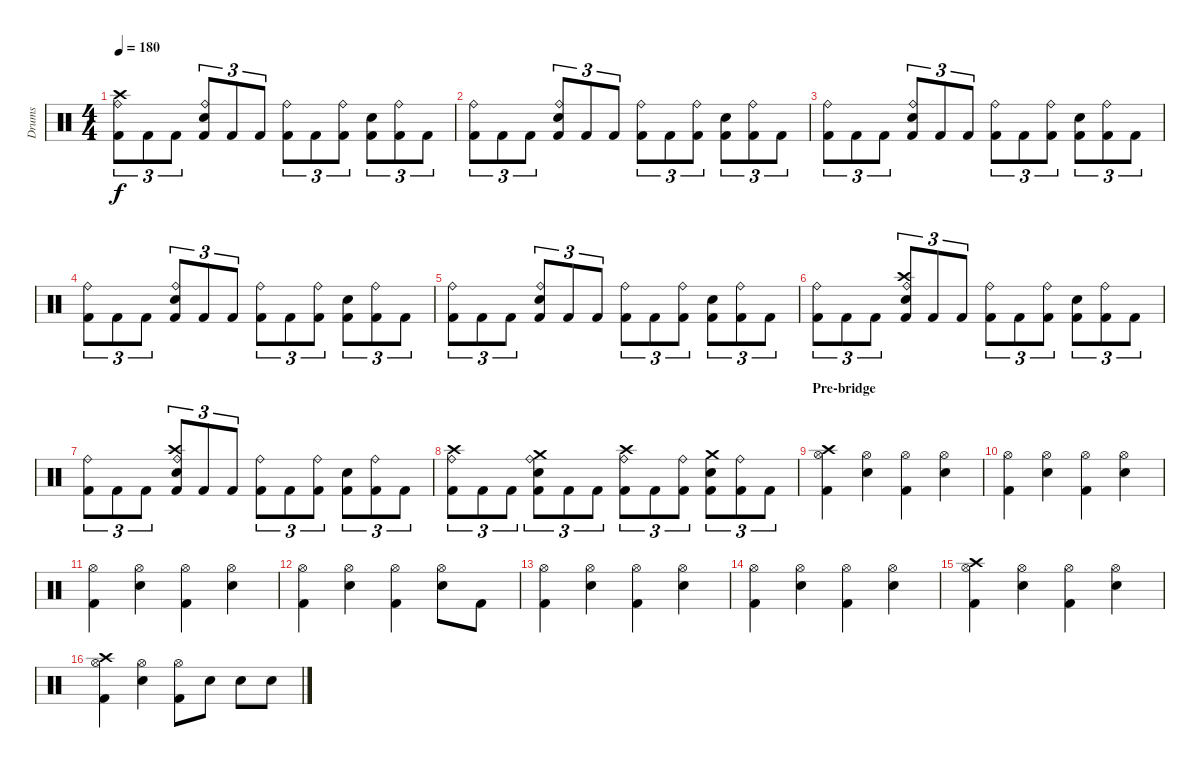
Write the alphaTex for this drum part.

\track ("Drums" "Drums") {instrument percussion}
\staff {score}
\articulation defaults
\ts (4 4)
\tempo 180
\clef neutral
\ks c
("Kick (hit) 2" "Crash high (hit)" "Ride (bell)").8{tu (3 2) dy f} "Kick (hit) 2".8{tu (3 2)} "Kick (hit) 2".8{tu (3 2)} ("Kick (hit) 2" "Electric Snare (hit)" "Ride (bell)").8{tu (3 2)} "Kick (hit) 2".8{tu (3 2)} "Kick (hit) 2".8{tu (3 2)} ("Kick (hit) 2" "Ride (bell)").8{tu (3 2)} "Kick (hit) 2".8{tu (3 2)} ("Kick (hit) 2" "Ride (bell)").8{tu (3 2)} ("Kick (hit) 2" "Electric Snare (hit)").8{tu (3 2)} ("Kick (hit) 2" "Ride (bell)").8{tu (3 2)} "Kick (hit) 2".8{tu (3 2)} |
("Kick (hit) 2" "Ride (bell)").8{tu (3 2)} "Kick (hit) 2".8{tu (3 2)} "Kick (hit) 2".8{tu (3 2)} ("Kick (hit) 2" "Electric Snare (hit)" "Ride (bell)").8{tu (3 2)} "Kick (hit) 2".8{tu (3 2)} "Kick (hit) 2".8{tu (3 2)} ("Kick (hit) 2" "Ride (bell)").8{tu (3 2)} "Kick (hit) 2".8{tu (3 2)} ("Kick (hit) 2" "Ride (bell)").8{tu (3 2)} ("Kick (hit) 2" "Electric Snare (hit)").8{tu (3 2)} ("Kick (hit) 2" "Ride (bell)").8{tu (3 2)} "Kick (hit) 2".8{tu (3 2)} |
("Kick (hit) 2" "Ride (bell)").8{tu (3 2)} "Kick (hit) 2".8{tu (3 2)} "Kick (hit) 2".8{tu (3 2)} ("Kick (hit) 2" "Electric Snare (hit)" "Ride (bell)").8{tu (3 2)} "Kick (hit) 2".8{tu (3 2)} "Kick (hit) 2".8{tu (3 2)} ("Kick (hit) 2" "Ride (bell)").8{tu (3 2)} "Kick (hit) 2".8{tu (3 2)} ("Kick (hit) 2" "Ride (bell)").8{tu (3 2)} ("Kick (hit) 2" "Electric Snare (hit)").8{tu (3 2)} ("Kick (hit) 2" "Ride (bell)").8{tu (3 2)} "Kick (hit) 2".8{tu (3 2)} |
("Kick (hit) 2" "Ride (bell)").8{tu (3 2)} "Kick (hit) 2".8{tu (3 2)} "Kick (hit) 2".8{tu (3 2)} ("Kick (hit) 2" "Electric Snare (hit)" "Ride (bell)").8{tu (3 2)} "Kick (hit) 2".8{tu (3 2)} "Kick (hit) 2".8{tu (3 2)} ("Kick (hit) 2" "Ride (bell)").8{tu (3 2)} "Kick (hit) 2".8{tu (3 2)} ("Kick (hit) 2" "Ride (bell)").8{tu (3 2)} ("Kick (hit) 2" "Electric Snare (hit)").8{tu (3 2)} ("Kick (hit) 2" "Ride (bell)").8{tu (3 2)} "Kick (hit) 2".8{tu (3 2)} |
("Kick (hit) 2" "Ride (bell)").8{tu (3 2)} "Kick (hit) 2".8{tu (3 2)} "Kick (hit) 2".8{tu (3 2)} ("Kick (hit) 2" "Electric Snare (hit)" "Ride (bell)").8{tu (3 2)} "Kick (hit) 2".8{tu (3 2)} "Kick (hit) 2".8{tu (3 2)} ("Kick (hit) 2" "Ride (bell)").8{tu (3 2)} "Kick (hit) 2".8{tu (3 2)} ("Kick (hit) 2" "Ride (bell)").8{tu (3 2)} ("Kick (hit) 2" "Electric Snare (hit)").8{tu (3 2)} ("Kick (hit) 2" "Ride (bell)").8{tu (3 2)} "Kick (hit) 2".8{tu (3 2)} |
("Kick (hit) 2" "Ride (bell)").8{tu (3 2)} "Kick (hit) 2".8{tu (3 2)} "Kick (hit) 2".8{tu (3 2)} ("Kick (hit) 2" "Electric Snare (hit)" "Ride (bell)" "Crash high (hit)").8{tu (3 2)} "Kick (hit) 2".8{tu (3 2)} "Kick (hit) 2".8{tu (3 2)} ("Kick (hit) 2" "Ride (bell)").8{tu (3 2)} "Kick (hit) 2".8{tu (3 2)} ("Kick (hit) 2" "Ride (bell)").8{tu (3 2)} ("Kick (hit) 2" "Electric Snare (hit)").8{tu (3 2)} ("Kick (hit) 2" "Ride (bell)").8{tu (3 2)} "Kick (hit) 2".8{tu (3 2)} |
("Kick (hit) 2" "Ride (bell)").8{tu (3 2)} "Kick (hit) 2".8{tu (3 2)} "Kick (hit) 2".8{tu (3 2)} ("Kick (hit) 2" "Electric Snare (hit)" "Ride (bell)" "Crash high (hit)").8{tu (3 2)} "Kick (hit) 2".8{tu (3 2)} "Kick (hit) 2".8{tu (3 2)} ("Kick (hit) 2" "Ride (bell)").8{tu (3 2)} "Kick (hit) 2".8{tu (3 2)} ("Kick (hit) 2" "Ride (bell)").8{tu (3 2)} ("Kick (hit) 2" "Electric Snare (hit)").8{tu (3 2)} ("Kick (hit) 2" "Ride (bell)").8{tu (3 2)} "Kick (hit) 2".8{tu (3 2)} |
("Kick (hit) 2" "Ride (bell)" "Crash high (hit)").8{tu (3 2)} "Kick (hit) 2".8{tu (3 2)} "Kick (hit) 2".8{tu (3 2)} ("Kick (hit) 2" "Electric Snare (hit)" "Ride (bell)" "Crash medium (hit)").8{tu (3 2)} "Kick (hit) 2".8{tu (3 2)} "Kick (hit) 2".8{tu (3 2)} ("Kick (hit) 2" "Ride (bell)" "Crash high (hit)").8{tu (3 2)} "Kick (hit) 2".8{tu (3 2)} ("Kick (hit) 2" "Ride (bell)").8{tu (3 2)} ("Kick (hit) 2" "Electric Snare (hit)" "Crash medium (hit)").8{tu (3 2)} ("Kick (hit) 2" "Ride (bell)").8{tu (3 2)} "Kick (hit) 2".8{tu (3 2)} |
\section ("" "Pre-bridge")
("Hi-Hat (open)" "Kick (hit) 2" "Crash high (hit)").4 ("Hi-Hat (open)" "Electric Snare (hit)").4 ("Hi-Hat (open)" "Kick (hit) 2").4 ("Hi-Hat (open)" "Electric Snare (hit)").4 |
("Hi-Hat (open)" "Kick (hit) 2").4 ("Hi-Hat (open)" "Electric Snare (hit)").4 ("Hi-Hat (open)" "Kick (hit) 2").4 ("Hi-Hat (open)" "Electric Snare (hit)").4 |
("Hi-Hat (open)" "Kick (hit) 2").4 ("Hi-Hat (open)" "Electric Snare (hit)").4 ("Hi-Hat (open)" "Kick (hit) 2").4 ("Hi-Hat (open)" "Electric Snare (hit)").4 |
("Hi-Hat (open)" "Kick (hit) 2").4 ("Hi-Hat (open)" "Electric Snare (hit)").4 ("Hi-Hat (open)" "Kick (hit) 2").4 ("Hi-Hat (open)" "Electric Snare (hit)").8 "Kick (hit) 2".8 |
("Hi-Hat (open)" "Kick (hit) 2").4 ("Hi-Hat (open)" "Electric Snare (hit)").4 ("Hi-Hat (open)" "Kick (hit) 2").4 ("Hi-Hat (open)" "Electric Snare (hit)").4 |
("Hi-Hat (open)" "Kick (hit) 2").4 ("Hi-Hat (open)" "Electric Snare (hit)").4 ("Hi-Hat (open)" "Kick (hit) 2").4 ("Hi-Hat (open)" "Electric Snare (hit)").4 |
("Hi-Hat (open)" "Kick (hit) 2" "Crash high (hit)").4 ("Hi-Hat (open)" "Electric Snare (hit)").4 ("Hi-Hat (open)" "Kick (hit) 2").4 ("Hi-Hat (open)" "Electric Snare (hit)").4 |
("Hi-Hat (open)" "Kick (hit) 2" "Crash high (hit)").4 ("Hi-Hat (open)" "Electric Snare (hit)").4 ("Hi-Hat (open)" "Kick (hit) 2").8 "Electric Snare (hit)".8 "Electric Snare (hit)".8 "Electric Snare (hit)".8
